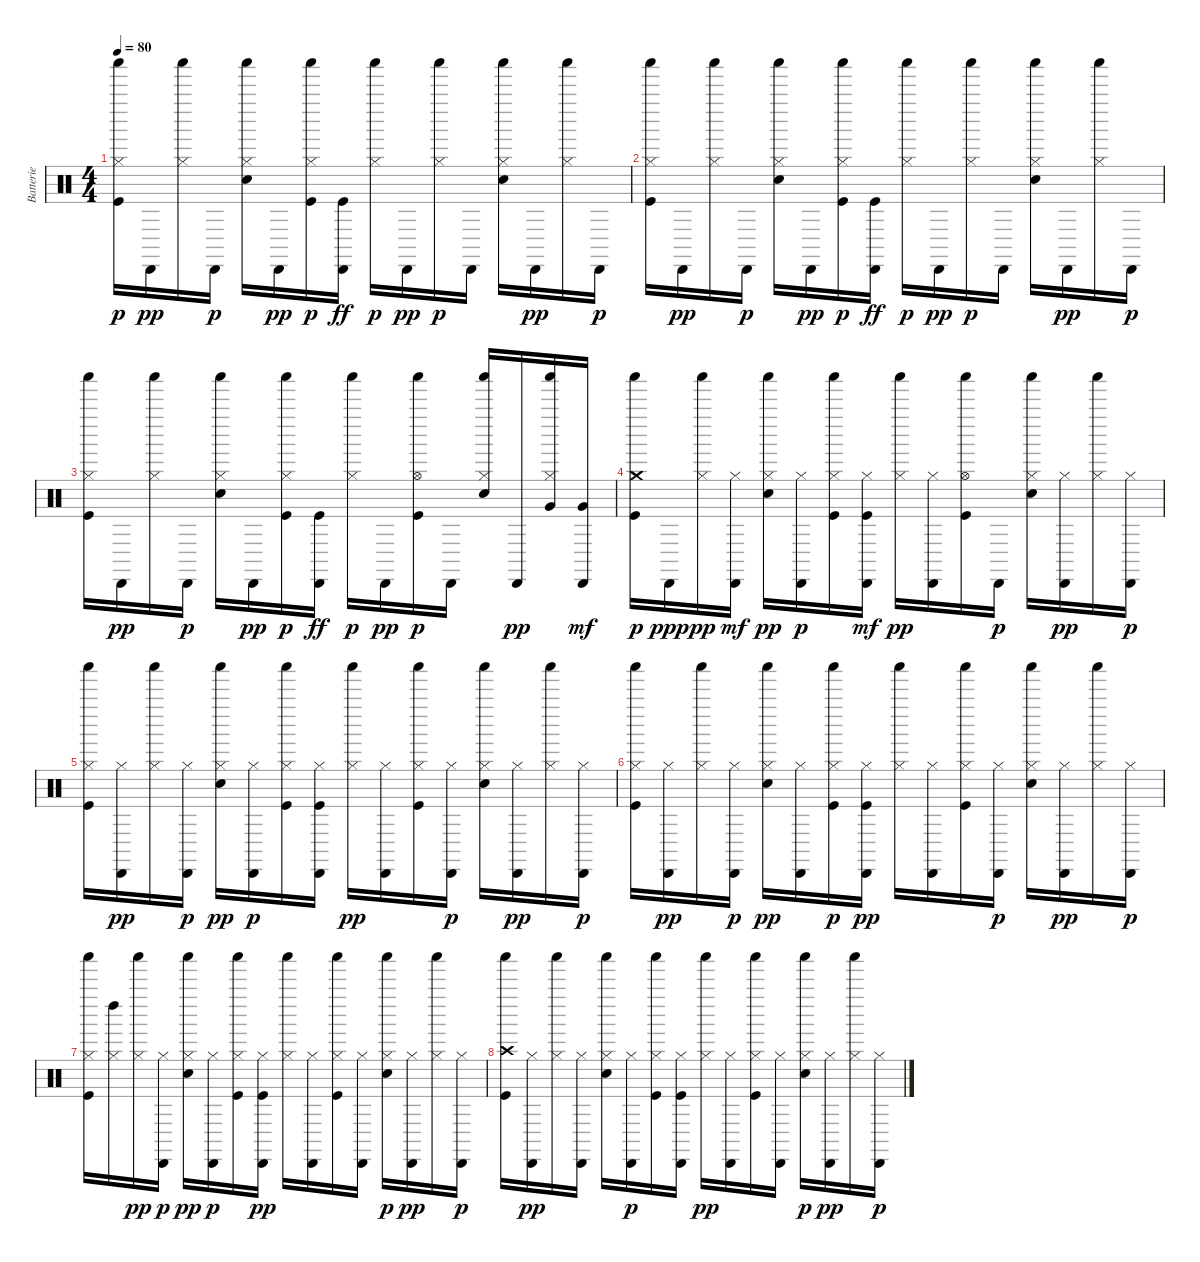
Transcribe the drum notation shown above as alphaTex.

\track ("Batterie" "Batterie") {instrument percussion}
\staff {score}
\articulation defaults
\ts (4 4)
\tempo 80
\clef neutral
\ks c
("Kick (hit)" "Hi-Hat (closed)" "Shaker (hit)").16{dy p} "Cabasa (hit)".16{dy pp} ("Hi-Hat (closed)" "Shaker (hit)").16 "Cabasa (hit)".16{dy p} ("Snare (hit) 2" "Hi-Hat (closed)" "Shaker (hit)").16 "Cabasa (hit)".16{dy pp} ("Kick (hit)" "Hi-Hat (closed)" "Shaker (hit)").16{dy p} ("Cabasa (hit)" "Kick (hit)").16{dy ff} ("Hi-Hat (closed)" "Shaker (hit)").16{dy p} "Cabasa (hit)".16{dy pp} ("Hi-Hat (closed)" "Shaker (hit)").16{dy p} "Cabasa (hit)".16 ("Snare (hit) 2" "Hi-Hat (closed)" "Shaker (hit)").16 "Cabasa (hit)".16{dy pp} ("Hi-Hat (closed)" "Shaker (hit)").16 "Cabasa (hit)".16{dy p} |
("Kick (hit)" "Hi-Hat (closed)" "Shaker (hit)").16 "Cabasa (hit)".16{dy pp} ("Hi-Hat (closed)" "Shaker (hit)").16 "Cabasa (hit)".16{dy p} ("Snare (hit) 2" "Hi-Hat (closed)" "Shaker (hit)").16 "Cabasa (hit)".16{dy pp} ("Kick (hit)" "Hi-Hat (closed)" "Shaker (hit)").16{dy p} ("Cabasa (hit)" "Kick (hit)").16{dy ff} ("Hi-Hat (closed)" "Shaker (hit)").16{dy p} "Cabasa (hit)".16{dy pp} ("Hi-Hat (closed)" "Shaker (hit)").16{dy p} "Cabasa (hit)".16 ("Snare (hit) 2" "Hi-Hat (closed)" "Shaker (hit)").16 "Cabasa (hit)".16{dy pp} ("Hi-Hat (closed)" "Shaker (hit)").16 "Cabasa (hit)".16{dy p} |
("Kick (hit)" "Hi-Hat (closed)" "Shaker (hit)").16 "Cabasa (hit)".16{dy pp} ("Hi-Hat (closed)" "Shaker (hit)").16 "Cabasa (hit)".16{dy p} ("Snare (hit) 2" "Hi-Hat (closed)" "Shaker (hit)").16 "Cabasa (hit)".16{dy pp} ("Kick (hit)" "Hi-Hat (closed)" "Shaker (hit)").16{dy p} ("Cabasa (hit)" "Kick (hit)").16{dy ff} ("Hi-Hat (closed)" "Shaker (hit)").16{dy p} "Cabasa (hit)".16{dy pp} ("Kick (hit)" "Hi-Hat (open)" "Shaker (hit)").16{dy p} "Cabasa (hit)".16 ("Snare (hit) 2" "Hi-Hat (closed)" "Shaker (hit)").16 "Cabasa (hit)".16{dy pp} ("Hi-Hat (closed)" "Very Low Tom (hit)" "Shaker (hit)").16 ("Cabasa (hit)" "Very Low Tom (hit)").16{dy mf} |
("Kick (hit)" "Crash medium (hit)" "Shaker (hit)").16{dy p} "Cabasa (hit)".16{dy ppp} ("Hi-Hat (closed)" "Shaker (hit)").16{dy pp} ("Cabasa (hit)" "Hi-Hat (closed)").16{dy mf} ("Snare (hit) 2" "Hi-Hat (closed)" "Shaker (hit)").16{dy pp} ("Cabasa (hit)" "Hi-Hat (closed)").16{dy p} ("Kick (hit)" "Hi-Hat (closed)" "Shaker (hit)").16 ("Cabasa (hit)" "Kick (hit)" "Hi-Hat (closed)").16{dy mf} ("Hi-Hat (closed)" "Shaker (hit)").16{dy pp} ("Cabasa (hit)" "Hi-Hat (closed)").16 ("Kick (hit)" "Hi-Hat (open)" "Shaker (hit)").16 "Cabasa (hit)".16{dy p} ("Snare (hit) 2" "Hi-Hat (closed)" "Shaker (hit)").16 ("Cabasa (hit)" "Hi-Hat (closed)").16{dy pp} ("Hi-Hat (closed)" "Shaker (hit)").16 ("Cabasa (hit)" "Hi-Hat (closed)").16{dy p} |
("Kick (hit)" "Hi-Hat (closed)" "Shaker (hit)").16 ("Cabasa (hit)" "Hi-Hat (closed)").16{dy pp} ("Hi-Hat (closed)" "Shaker (hit)").16 ("Cabasa (hit)" "Hi-Hat (closed)").16{dy p} ("Snare (hit) 2" "Hi-Hat (closed)" "Shaker (hit)").16{dy pp} ("Cabasa (hit)" "Hi-Hat (closed)").16{dy p} ("Kick (hit)" "Hi-Hat (closed)" "Shaker (hit)").16 ("Cabasa (hit)" "Kick (hit)" "Hi-Hat (closed)").16 ("Hi-Hat (closed)" "Shaker (hit)").16{dy pp} ("Cabasa (hit)" "Hi-Hat (closed)").16 ("Kick (hit)" "Hi-Hat (closed)" "Shaker (hit)").16 ("Cabasa (hit)" "Hi-Hat (closed)").16{dy p} ("Snare (hit) 2" "Hi-Hat (closed)" "Shaker (hit)").16 ("Cabasa (hit)" "Hi-Hat (closed)").16{dy pp} ("Hi-Hat (closed)" "Shaker (hit)").16 ("Cabasa (hit)" "Hi-Hat (closed)").16{dy p} |
("Kick (hit)" "Hi-Hat (closed)" "Shaker (hit)").16 ("Cabasa (hit)" "Hi-Hat (closed)").16{dy pp} ("Hi-Hat (closed)" "Shaker (hit)").16 ("Cabasa (hit)" "Hi-Hat (closed)").16{dy p} ("Snare (hit) 2" "Hi-Hat (closed)" "Shaker (hit)").16{dy pp} ("Cabasa (hit)" "Hi-Hat (closed)").16 ("Kick (hit)" "Hi-Hat (closed)" "Shaker (hit)").16{dy p} ("Cabasa (hit)" "Kick (hit)" "Hi-Hat (closed)").16{dy pp} ("Hi-Hat (closed)" "Shaker (hit)").16 ("Cabasa (hit)" "Hi-Hat (closed)").16 ("Kick (hit)" "Hi-Hat (closed)" "Shaker (hit)").16 ("Cabasa (hit)" "Hi-Hat (closed)").16{dy p} ("Snare (hit) 2" "Hi-Hat (closed)" "Shaker (hit)").16 ("Cabasa (hit)" "Hi-Hat (closed)").16{dy pp} ("Hi-Hat (closed)" "Shaker (hit)").16 ("Cabasa (hit)" "Hi-Hat (closed)").16{dy p} |
("Kick (hit)" "Hi-Hat (closed)" "Shaker (hit)").16 ("Hi-Hat (closed)" "Left Maraca (hit)").16 ("Hi-Hat (closed)" "Shaker (hit)").16{dy pp} ("Cabasa (hit)" "Hi-Hat (closed)").16{dy p} ("Snare (hit) 2" "Hi-Hat (closed)" "Shaker (hit)").16{dy pp} ("Cabasa (hit)" "Hi-Hat (closed)").16{dy p} ("Kick (hit)" "Hi-Hat (closed)" "Shaker (hit)").16 ("Cabasa (hit)" "Kick (hit)" "Hi-Hat (closed)").16{dy pp} ("Hi-Hat (closed)" "Shaker (hit)").16 ("Cabasa (hit)" "Hi-Hat (closed)").16 ("Kick (hit)" "Hi-Hat (closed)" "Shaker (hit)").16 ("Cabasa (hit)" "Hi-Hat (closed)").16 ("Snare (hit) 2" "Hi-Hat (closed)" "Shaker (hit)").16{dy p} ("Cabasa (hit)" "Hi-Hat (closed)").16{dy pp} ("Hi-Hat (closed)" "Shaker (hit)").16 ("Cabasa (hit)" "Hi-Hat (closed)").16{dy p} |
("Kick (hit)" "Crash high (hit)" "Shaker (hit)").16 ("Cabasa (hit)" "Hi-Hat (closed)").16{dy pp} ("Hi-Hat (closed)" "Shaker (hit)").16 ("Cabasa (hit)" "Hi-Hat (closed)").16 ("Snare (hit) 2" "Hi-Hat (closed)" "Shaker (hit)").16 ("Cabasa (hit)" "Hi-Hat (closed)").16{dy p} ("Kick (hit)" "Hi-Hat (closed)" "Shaker (hit)").16 ("Cabasa (hit)" "Kick (hit)" "Hi-Hat (closed)").16 ("Hi-Hat (closed)" "Shaker (hit)").16{dy pp} ("Cabasa (hit)" "Hi-Hat (closed)").16 ("Kick (hit)" "Hi-Hat (closed)" "Shaker (hit)").16 ("Cabasa (hit)" "Hi-Hat (closed)").16 ("Snare (hit) 2" "Hi-Hat (closed)" "Shaker (hit)").16{dy p} ("Cabasa (hit)" "Hi-Hat (closed)").16{dy pp} ("Hi-Hat (closed)" "Shaker (hit)").16 ("Cabasa (hit)" "Hi-Hat (closed)").16{dy p}
